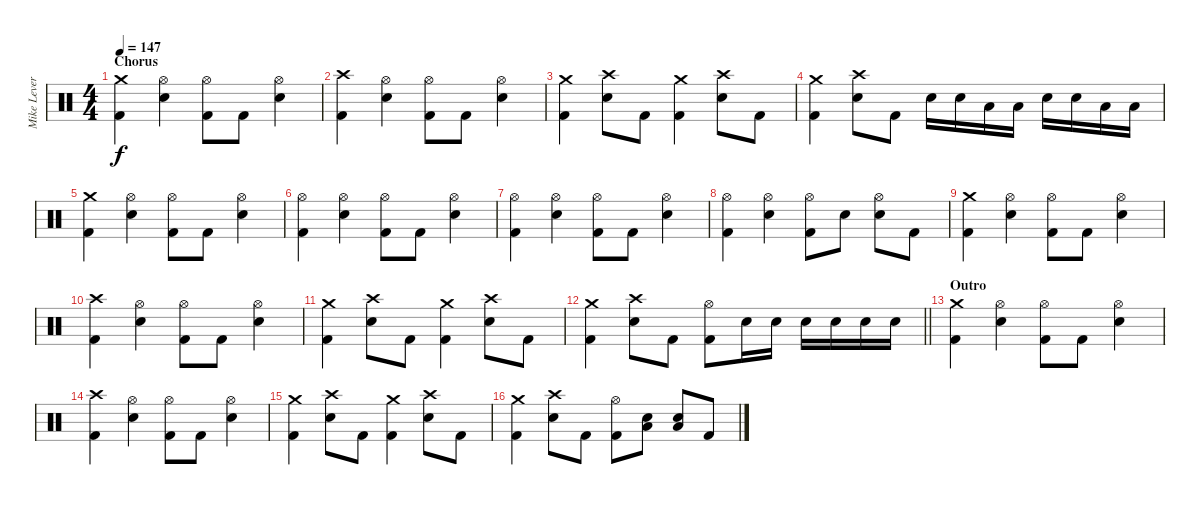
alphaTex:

\track ("Mike Leverence - Drums" "Mike Lever") {instrument percussion}
\staff {score}
\articulation defaults
\ts (4 4)
\section ("" "Chorus")
\tempo 147
\clef neutral
\ks c
("Crash medium (hit)" "Kick (hit) 2").4{dy f} ("Hi-Hat (open)" "Electric Snare (hit)").4 ("Hi-Hat (open)" "Kick (hit) 2").8 "Kick (hit) 2".8 ("Hi-Hat (open)" "Electric Snare (hit)").4 |
("Crash high (hit)" "Kick (hit) 2").4 ("Hi-Hat (open)" "Electric Snare (hit)").4 ("Hi-Hat (open)" "Kick (hit) 2").8 "Kick (hit) 2".8 ("Hi-Hat (open)" "Electric Snare (hit)").4 |
("Crash medium (hit)" "Kick (hit) 2").4 ("Crash high (hit)" "Electric Snare (hit)").8 "Kick (hit) 2".8 ("Crash medium (hit)" "Kick (hit) 2").4 ("Crash high (hit)" "Electric Snare (hit)").8 "Kick (hit) 2".8 |
("Crash medium (hit)" "Kick (hit) 2").4 ("Crash high (hit)" "Electric Snare (hit)").8 "Kick (hit) 2".8 "Electric Snare (hit)".16 "Electric Snare (hit)".16 "Low Tom (hit)".16 "Low Tom (hit)".16 "Electric Snare (hit)".16 "Electric Snare (hit)".16 "Low Tom (hit)".16 "Low Tom (hit)".16 |
("Crash medium (hit)" "Kick (hit) 2").4 ("Hi-Hat (open)" "Electric Snare (hit)").4 ("Hi-Hat (open)" "Kick (hit) 2").8 "Kick (hit) 2".8 ("Hi-Hat (open)" "Electric Snare (hit)").4 |
("Hi-Hat (open)" "Kick (hit) 2").4 ("Hi-Hat (open)" "Electric Snare (hit)").4 ("Hi-Hat (open)" "Kick (hit) 2").8 "Kick (hit) 2".8 ("Hi-Hat (open)" "Electric Snare (hit)").4 |
("Hi-Hat (open)" "Kick (hit) 2").4 ("Hi-Hat (open)" "Electric Snare (hit)").4 ("Hi-Hat (open)" "Kick (hit) 2").8 "Kick (hit) 2".8 ("Hi-Hat (open)" "Electric Snare (hit)").4 |
("Hi-Hat (open)" "Kick (hit) 2").4 ("Hi-Hat (open)" "Electric Snare (hit)").4 ("Hi-Hat (open)" "Kick (hit) 2").8 "Electric Snare (hit)".8 ("Hi-Hat (open)" "Electric Snare (hit)").8 "Kick (hit) 2".8 |
("Crash medium (hit)" "Kick (hit) 2").4 ("Hi-Hat (open)" "Electric Snare (hit)").4 ("Hi-Hat (open)" "Kick (hit) 2").8 "Kick (hit) 2".8 ("Hi-Hat (open)" "Electric Snare (hit)").4 |
("Crash high (hit)" "Kick (hit) 2").4 ("Hi-Hat (open)" "Electric Snare (hit)").4 ("Hi-Hat (open)" "Kick (hit) 2").8 "Kick (hit) 2".8 ("Hi-Hat (open)" "Electric Snare (hit)").4 |
("Crash medium (hit)" "Kick (hit) 2").4 ("Crash high (hit)" "Electric Snare (hit)").8 "Kick (hit) 2".8 ("Crash medium (hit)" "Kick (hit) 2").4 ("Crash high (hit)" "Electric Snare (hit)").8 "Kick (hit) 2".8 |
\barLineRight lightlight
("Crash medium (hit)" "Kick (hit) 2").4 ("Crash high (hit)" "Electric Snare (hit)").8 "Kick (hit) 2".8 ("Hi-Hat (open)" "Kick (hit) 2").8 "Electric Snare (hit)".16 "Electric Snare (hit)".16 "Electric Snare (hit)".16 "Electric Snare (hit)".16 "Electric Snare (hit)".16 "Electric Snare (hit)".16 |
\section ("" "Outro")
("Crash medium (hit)" "Kick (hit) 2").4 ("Hi-Hat (open)" "Electric Snare (hit)").4 ("Hi-Hat (open)" "Kick (hit) 2").8 "Kick (hit) 2".8 ("Hi-Hat (open)" "Electric Snare (hit)").4 |
("Crash high (hit)" "Kick (hit) 2").4 ("Hi-Hat (open)" "Electric Snare (hit)").4 ("Hi-Hat (open)" "Kick (hit) 2").8 "Kick (hit) 2".8 ("Hi-Hat (open)" "Electric Snare (hit)").4 |
("Crash medium (hit)" "Kick (hit) 2").4 ("Crash high (hit)" "Electric Snare (hit)").8 "Kick (hit) 2".8 ("Crash medium (hit)" "Kick (hit) 2").4 ("Crash high (hit)" "Electric Snare (hit)").8 "Kick (hit) 2".8 |
("Crash medium (hit)" "Kick (hit) 2").4 ("Crash high (hit)" "Electric Snare (hit)").8 "Kick (hit) 2".8 ("Hi-Hat (open)" "Kick (hit) 2").8 ("Low Tom (hit)" "Electric Snare (hit)").8 ("Low Tom (hit)" "Electric Snare (hit)").8 "Kick (hit) 2".8
